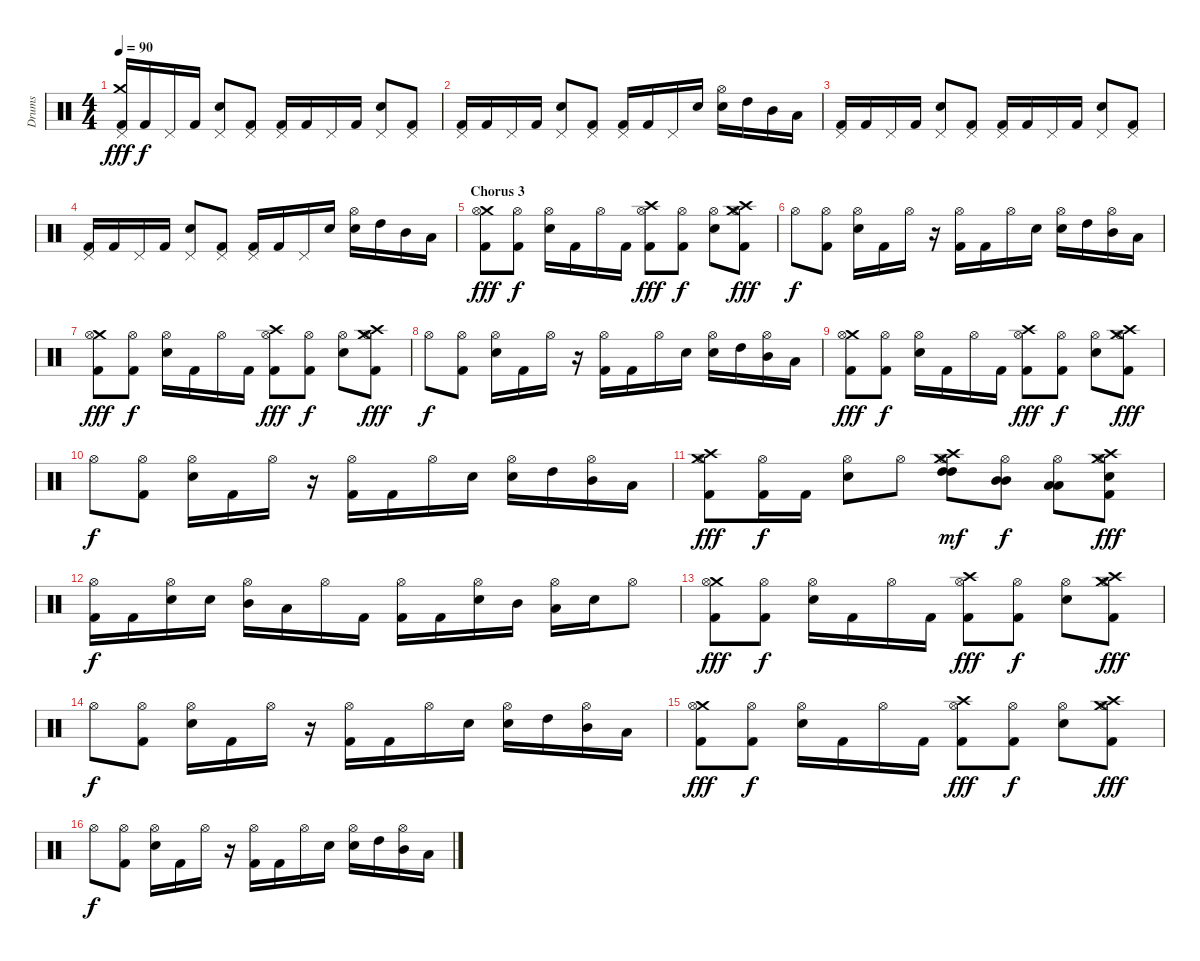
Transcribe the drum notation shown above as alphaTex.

\track ("Drums" "Drums") {instrument percussion}
\staff {score}
\articulation defaults
\ts (4 4)
\tempo 90
\clef neutral
\ks c
("Kick (hit) 2" "Crash medium (hit)" "Pedal Hi-Hat (hit)").16{dy fff} "Kick (hit) 2".16{dy f} "Pedal Hi-Hat (hit)".16 "Kick (hit) 2".16 ("Snare (hit) 2" "Pedal Hi-Hat (hit)").8 ("Kick (hit) 2" "Pedal Hi-Hat (hit)").8 ("Kick (hit) 2" "Pedal Hi-Hat (hit)").16 "Kick (hit) 2".16 "Pedal Hi-Hat (hit)".16 "Kick (hit) 2".16 ("Snare (hit) 2" "Pedal Hi-Hat (hit)").8 ("Kick (hit) 2" "Pedal Hi-Hat (hit)").8 |
("Kick (hit) 2" "Pedal Hi-Hat (hit)").16 "Kick (hit) 2".16 "Pedal Hi-Hat (hit)".16 "Kick (hit) 2".16 ("Snare (hit) 2" "Pedal Hi-Hat (hit)").8 ("Kick (hit) 2" "Pedal Hi-Hat (hit)").8 ("Kick (hit) 2" "Pedal Hi-Hat (hit)").16 "Kick (hit) 2".16 "Pedal Hi-Hat (hit)".16 "Snare (hit) 2".16 ("Snare (hit) 2" "Hi-Hat (open)").16 "High Tom (hit)".16 "Mid Tom (hit)".16 "Low Tom (hit)".16 |
("Kick (hit) 2" "Pedal Hi-Hat (hit)").16 "Kick (hit) 2".16 "Pedal Hi-Hat (hit)".16 "Kick (hit) 2".16 ("Snare (hit) 2" "Pedal Hi-Hat (hit)").8 ("Kick (hit) 2" "Pedal Hi-Hat (hit)").8 ("Kick (hit) 2" "Pedal Hi-Hat (hit)").16 "Kick (hit) 2".16 "Pedal Hi-Hat (hit)".16 "Kick (hit) 2".16 ("Snare (hit) 2" "Pedal Hi-Hat (hit)").8 ("Kick (hit) 2" "Pedal Hi-Hat (hit)").8 |
("Kick (hit) 2" "Pedal Hi-Hat (hit)").16 "Kick (hit) 2".16 "Pedal Hi-Hat (hit)".16 "Kick (hit) 2".16 ("Snare (hit) 2" "Pedal Hi-Hat (hit)").8 ("Kick (hit) 2" "Pedal Hi-Hat (hit)").8 ("Kick (hit) 2" "Pedal Hi-Hat (hit)").16 "Kick (hit) 2".16 "Pedal Hi-Hat (hit)".16 "Snare (hit) 2".16 ("Snare (hit) 2" "Hi-Hat (open)").16 "High Tom (hit)".16 "Mid Tom (hit)".16 "Low Tom (hit)".16 |
\section ("" "Chorus 3")
("Kick (hit) 2" "Crash medium (hit)" "Hi-Hat (open)").8{dy fff} ("Kick (hit) 2" "Hi-Hat (open)").8{dy f} ("Snare (hit) 2" "Hi-Hat (open)").16 "Kick (hit) 2".16 "Hi-Hat (open)".16 "Kick (hit) 2".16 ("Kick (hit) 2" "Crash high (hit)" "Hi-Hat (open)").8{dy fff} ("Kick (hit) 2" "Hi-Hat (open)").8{dy f} ("Snare (hit) 2" "Hi-Hat (open)").8 ("Kick (hit) 2" "Crash medium (hit)" "Crash high (hit)" "Hi-Hat (open)").8{dy fff} |
"Hi-Hat (open)".8{dy f} ("Kick (hit) 2" "Hi-Hat (open)").8 ("Snare (hit) 2" "Hi-Hat (open)").16 "Kick (hit) 2".16 "Hi-Hat (open)".16 r.16 ("Kick (hit) 2" "Hi-Hat (open)").16 "Kick (hit) 2".16 "Hi-Hat (open)".16 "Snare (hit) 2".16 ("Snare (hit) 2" "Hi-Hat (open)").16 "High Tom (hit)".16 ("Mid Tom (hit)" "Hi-Hat (open)").16 "Low Tom (hit)".16 |
("Kick (hit) 2" "Crash medium (hit)" "Hi-Hat (open)").8{dy fff} ("Kick (hit) 2" "Hi-Hat (open)").8{dy f} ("Snare (hit) 2" "Hi-Hat (open)").16 "Kick (hit) 2".16 "Hi-Hat (open)".16 "Kick (hit) 2".16 ("Kick (hit) 2" "Crash high (hit)" "Hi-Hat (open)").8{dy fff} ("Kick (hit) 2" "Hi-Hat (open)").8{dy f} ("Snare (hit) 2" "Hi-Hat (open)").8 ("Kick (hit) 2" "Crash medium (hit)" "Crash high (hit)" "Hi-Hat (open)").8{dy fff} |
"Hi-Hat (open)".8{dy f} ("Kick (hit) 2" "Hi-Hat (open)").8 ("Snare (hit) 2" "Hi-Hat (open)").16 "Kick (hit) 2".16 "Hi-Hat (open)".16 r.16 ("Kick (hit) 2" "Hi-Hat (open)").16 "Kick (hit) 2".16 "Hi-Hat (open)".16 "Snare (hit) 2".16 ("Snare (hit) 2" "Hi-Hat (open)").16 "High Tom (hit)".16 ("Mid Tom (hit)" "Hi-Hat (open)").16 "Low Tom (hit)".16 |
("Kick (hit) 2" "Crash medium (hit)" "Hi-Hat (open)").8{dy fff} ("Kick (hit) 2" "Hi-Hat (open)").8{dy f} ("Snare (hit) 2" "Hi-Hat (open)").16 "Kick (hit) 2".16 "Hi-Hat (open)".16 "Kick (hit) 2".16 ("Kick (hit) 2" "Crash high (hit)" "Hi-Hat (open)").8{dy fff} ("Kick (hit) 2" "Hi-Hat (open)").8{dy f} ("Snare (hit) 2" "Hi-Hat (open)").8 ("Kick (hit) 2" "Crash medium (hit)" "Crash high (hit)" "Hi-Hat (open)").8{dy fff} |
"Hi-Hat (open)".8{dy f} ("Kick (hit) 2" "Hi-Hat (open)").8 ("Snare (hit) 2" "Hi-Hat (open)").16 "Kick (hit) 2".16 "Hi-Hat (open)".16 r.16 ("Kick (hit) 2" "Hi-Hat (open)").16 "Kick (hit) 2".16 "Hi-Hat (open)".16 "Snare (hit) 2".16 ("Snare (hit) 2" "Hi-Hat (open)").16 "High Tom (hit)".16 ("Mid Tom (hit)" "Hi-Hat (open)").16 "Low Tom (hit)".16 |
("Kick (hit) 2" "Crash medium (hit)" "Crash high (hit)" "Hi-Hat (open)").8{dy fff} ("Kick (hit) 2" "Hi-Hat (open)").16{dy f} "Kick (hit) 2".16 ("Snare (hit) 2" "Hi-Hat (open)").8 "Hi-Hat (open)".8 ("High Tom (hit)" "High Tom (hit)" "Crash medium (hit)" "Crash high (hit)" "Hi-Hat (open)").8{dy mf} ("Mid Tom (hit)" "Mid Tom (hit)" "Hi-Hat (open)").8{dy f} ("Low Tom (hit)" "Low Tom (hit)" "Hi-Hat (open)").8 ("Snare (hit) 2" "Kick (hit) 2" "Crash medium (hit)" "Crash high (hit)" "Hi-Hat (open)").8{dy fff} |
("Kick (hit) 2" "Hi-Hat (open)").16{dy f} "Kick (hit) 2".16 ("Snare (hit) 2" "Hi-Hat (open)").16 "Snare (hit) 2".16 ("Mid Tom (hit)" "Hi-Hat (open)").16 "Low Tom (hit)".16 "Hi-Hat (open)".16 "Kick (hit) 2".16 ("Kick (hit) 2" "Hi-Hat (open)").16 "Kick (hit) 2".16 ("Snare (hit) 2" "Hi-Hat (open)").16 "Mid Tom (hit)".16 ("Low Tom (hit)" "Hi-Hat (open)").16 "Snare (hit) 2".16 "Hi-Hat (open)".8 |
("Kick (hit) 2" "Crash medium (hit)" "Hi-Hat (open)").8{dy fff} ("Kick (hit) 2" "Hi-Hat (open)").8{dy f} ("Snare (hit) 2" "Hi-Hat (open)").16 "Kick (hit) 2".16 "Hi-Hat (open)".16 "Kick (hit) 2".16 ("Kick (hit) 2" "Crash high (hit)" "Hi-Hat (open)").8{dy fff} ("Kick (hit) 2" "Hi-Hat (open)").8{dy f} ("Snare (hit) 2" "Hi-Hat (open)").8 ("Kick (hit) 2" "Crash medium (hit)" "Crash high (hit)" "Hi-Hat (open)").8{dy fff} |
"Hi-Hat (open)".8{dy f} ("Kick (hit) 2" "Hi-Hat (open)").8 ("Snare (hit) 2" "Hi-Hat (open)").16 "Kick (hit) 2".16 "Hi-Hat (open)".16 r.16 ("Kick (hit) 2" "Hi-Hat (open)").16 "Kick (hit) 2".16 "Hi-Hat (open)".16 "Snare (hit) 2".16 ("Snare (hit) 2" "Hi-Hat (open)").16 "High Tom (hit)".16 ("Mid Tom (hit)" "Hi-Hat (open)").16 "Low Tom (hit)".16 |
("Kick (hit) 2" "Crash medium (hit)" "Hi-Hat (open)").8{dy fff} ("Kick (hit) 2" "Hi-Hat (open)").8{dy f} ("Snare (hit) 2" "Hi-Hat (open)").16 "Kick (hit) 2".16 "Hi-Hat (open)".16 "Kick (hit) 2".16 ("Kick (hit) 2" "Crash high (hit)" "Hi-Hat (open)").8{dy fff} ("Kick (hit) 2" "Hi-Hat (open)").8{dy f} ("Snare (hit) 2" "Hi-Hat (open)").8 ("Kick (hit) 2" "Crash medium (hit)" "Crash high (hit)" "Hi-Hat (open)").8{dy fff} |
"Hi-Hat (open)".8{dy f} ("Kick (hit) 2" "Hi-Hat (open)").8 ("Snare (hit) 2" "Hi-Hat (open)").16 "Kick (hit) 2".16 "Hi-Hat (open)".16 r.16 ("Kick (hit) 2" "Hi-Hat (open)").16 "Kick (hit) 2".16 "Hi-Hat (open)".16 "Snare (hit) 2".16 ("Snare (hit) 2" "Hi-Hat (open)").16 "High Tom (hit)".16 ("Mid Tom (hit)" "Hi-Hat (open)").16 "Low Tom (hit)".16
